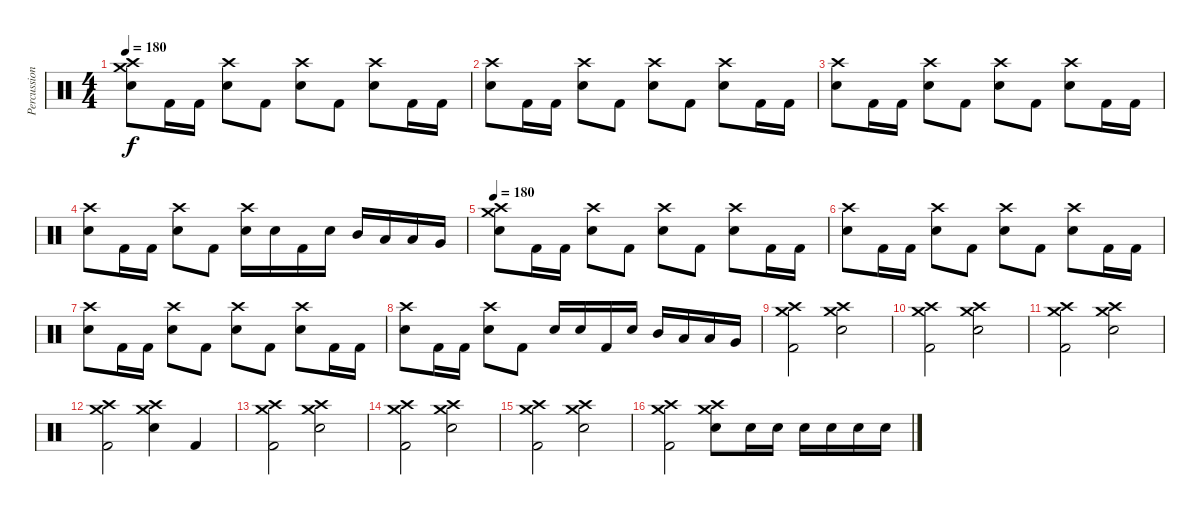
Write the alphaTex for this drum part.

\track ("Percussion" "Percussion") {instrument percussion}
\staff {score}
\articulation defaults
\ts (4 4)
\tempo 180
\clef neutral
\ks c
("Crash high (hit)" "Crash medium (hit)" "Electric Snare (hit)").8{dy f} "Kick (hit) 2".16 "Kick (hit) 2".16 ("Crash high (hit)" "Electric Snare (hit)").8 "Kick (hit) 2".8 ("Crash high (hit)" "Electric Snare (hit)").8 "Kick (hit) 2".8 ("Crash high (hit)" "Electric Snare (hit)").8 "Kick (hit) 2".16 "Kick (hit) 2".16 |
("Crash high (hit)" "Electric Snare (hit)").8 "Kick (hit) 2".16 "Kick (hit) 2".16 ("Crash high (hit)" "Electric Snare (hit)").8 "Kick (hit) 2".8 ("Crash high (hit)" "Electric Snare (hit)").8 "Kick (hit) 2".8 ("Crash high (hit)" "Electric Snare (hit)").8 "Kick (hit) 2".16 "Kick (hit) 2".16 |
("Crash high (hit)" "Electric Snare (hit)").8 "Kick (hit) 2".16 "Kick (hit) 2".16 ("Crash high (hit)" "Electric Snare (hit)").8 "Kick (hit) 2".8 ("Crash high (hit)" "Electric Snare (hit)").8 "Kick (hit) 2".8 ("Crash high (hit)" "Electric Snare (hit)").8 "Kick (hit) 2".16 "Kick (hit) 2".16 |
("Crash high (hit)" "Electric Snare (hit)").8 "Kick (hit) 2".16 "Kick (hit) 2".16 ("Crash high (hit)" "Electric Snare (hit)").8 "Kick (hit) 2".8 ("Crash high (hit)" "Electric Snare (hit)").16 "Electric Snare (hit)".16 "Kick (hit) 2".16 "Electric Snare (hit)".16 "Mid Tom (hit)".16 "Low Floor Tom (hit)".16 "Low Tom (hit)".16 "Very Low Tom (hit)".16 |
\tempo 180
("Crash high (hit)" "Crash medium (hit)" "Electric Snare (hit)").8 "Kick (hit) 2".16 "Kick (hit) 2".16 ("Crash high (hit)" "Electric Snare (hit)").8 "Kick (hit) 2".8 ("Crash high (hit)" "Electric Snare (hit)").8 "Kick (hit) 2".8 ("Crash high (hit)" "Electric Snare (hit)").8 "Kick (hit) 2".16 "Kick (hit) 2".16 |
("Crash high (hit)" "Electric Snare (hit)").8 "Kick (hit) 2".16 "Kick (hit) 2".16 ("Crash high (hit)" "Electric Snare (hit)").8 "Kick (hit) 2".8 ("Crash high (hit)" "Electric Snare (hit)").8 "Kick (hit) 2".8 ("Crash high (hit)" "Electric Snare (hit)").8 "Kick (hit) 2".16 "Kick (hit) 2".16 |
("Crash high (hit)" "Electric Snare (hit)").8 "Kick (hit) 2".16 "Kick (hit) 2".16 ("Crash high (hit)" "Electric Snare (hit)").8 "Kick (hit) 2".8 ("Crash high (hit)" "Electric Snare (hit)").8 "Kick (hit) 2".8 ("Crash high (hit)" "Electric Snare (hit)").8 "Kick (hit) 2".16 "Kick (hit) 2".16 |
("Crash high (hit)" "Electric Snare (hit)").8 "Kick (hit) 2".16 "Kick (hit) 2".16 ("Crash high (hit)" "Electric Snare (hit)").8 "Kick (hit) 2".8 "Electric Snare (hit)".16 "Electric Snare (hit)".16 "Kick (hit) 2".16 "Electric Snare (hit)".16 "Mid Tom (hit)".16 "Low Floor Tom (hit)".16 "Low Tom (hit)".16 "Very Low Tom (hit)".16 |
("Crash high (hit)" "Crash medium (hit)" "Kick (hit) 2").2 ("Crash high (hit)" "Crash medium (hit)" "Electric Snare (hit)").2 |
("Crash high (hit)" "Crash medium (hit)" "Kick (hit) 2").2 ("Crash high (hit)" "Crash medium (hit)" "Electric Snare (hit)").2 |
("Crash high (hit)" "Crash medium (hit)" "Kick (hit) 2").2 ("Crash high (hit)" "Crash medium (hit)" "Electric Snare (hit)").2 |
("Crash high (hit)" "Crash medium (hit)" "Kick (hit) 2").2 ("Crash high (hit)" "Crash medium (hit)" "Electric Snare (hit)").4 "Kick (hit) 2".4 |
("Crash high (hit)" "Crash medium (hit)" "Kick (hit) 2").2 ("Crash high (hit)" "Crash medium (hit)" "Electric Snare (hit)").2 |
("Crash high (hit)" "Crash medium (hit)" "Kick (hit) 2").2 ("Crash high (hit)" "Crash medium (hit)" "Electric Snare (hit)").2 |
("Crash high (hit)" "Crash medium (hit)" "Kick (hit) 2").2 ("Crash high (hit)" "Crash medium (hit)" "Electric Snare (hit)").2 |
("Crash high (hit)" "Crash medium (hit)" "Kick (hit) 2").2 ("Crash high (hit)" "Crash medium (hit)" "Electric Snare (hit)").8 "Electric Snare (hit)".16 "Electric Snare (hit)".16 "Electric Snare (hit)".16 "Electric Snare (hit)".16 "Electric Snare (hit)".16 "Electric Snare (hit)".16
